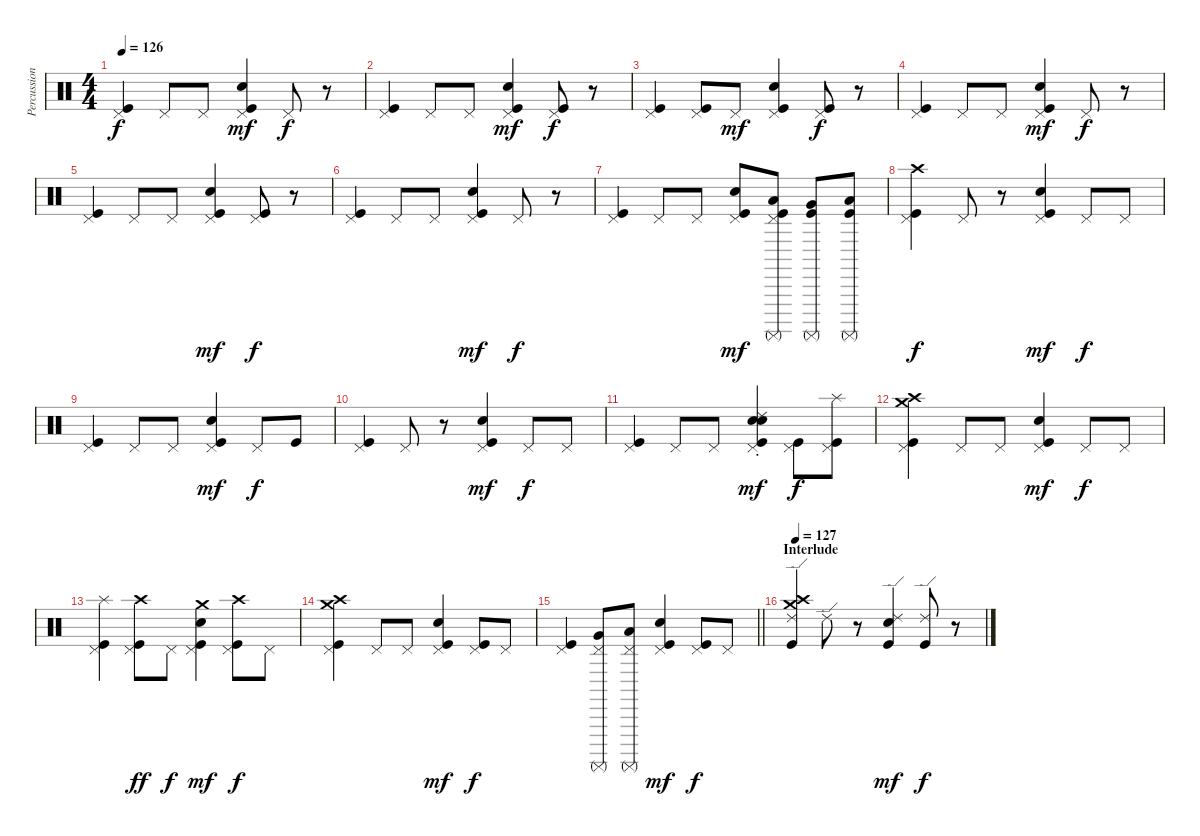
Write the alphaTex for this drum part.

\track ("Percussion" "Percussion") {instrument percussion}
\staff {score}
\articulation defaults
\ts (4 4)
\tempo 126
\clef neutral
\ks c
("Pedal Hi-Hat (hit)" "Kick (hit)").4{dy f} "Pedal Hi-Hat (hit)".8 "Pedal Hi-Hat (hit)".8 ("Pedal Hi-Hat (hit)" "Kick (hit)" "Electric Snare (hit)").4{dy mf} "Pedal Hi-Hat (hit)".8{dy f} r.8 |
("Pedal Hi-Hat (hit)" "Kick (hit)").4 "Pedal Hi-Hat (hit)".8 "Pedal Hi-Hat (hit)".8 ("Pedal Hi-Hat (hit)" "Electric Snare (hit)" "Kick (hit)").4{dy mf} ("Pedal Hi-Hat (hit)" "Kick (hit)").8{dy f} r.8 |
("Pedal Hi-Hat (hit)" "Kick (hit)").4 ("Pedal Hi-Hat (hit)" "Kick (hit)").8 "Pedal Hi-Hat (hit)".8{dy mf} ("Pedal Hi-Hat (hit)" "Kick (hit)" "Electric Snare (hit)").4 ("Pedal Hi-Hat (hit)" "Kick (hit)").8{dy f} r.8 |
("Pedal Hi-Hat (hit)" "Kick (hit)").4 "Pedal Hi-Hat (hit)".8 "Pedal Hi-Hat (hit)".8 ("Pedal Hi-Hat (hit)" "Kick (hit)" "Electric Snare (hit)").4{dy mf} "Pedal Hi-Hat (hit)".8{dy f} r.8 |
("Pedal Hi-Hat (hit)" "Kick (hit)").4 "Pedal Hi-Hat (hit)".8 "Pedal Hi-Hat (hit)".8 ("Pedal Hi-Hat (hit)" "Electric Snare (hit)" "Kick (hit)").4{dy mf} ("Pedal Hi-Hat (hit)" "Kick (hit)").8{dy f} r.8 |
("Pedal Hi-Hat (hit)" "Kick (hit)").4 "Pedal Hi-Hat (hit)".8 "Pedal Hi-Hat (hit)".8 ("Pedal Hi-Hat (hit)" "Kick (hit)" "Electric Snare (hit)").4{dy mf} "Pedal Hi-Hat (hit)".8{dy f} r.8 |
("Pedal Hi-Hat (hit)" "Kick (hit)").4 "Pedal Hi-Hat (hit)".8 "Pedal Hi-Hat (hit)".8 ("Pedal Hi-Hat (hit)" "Electric Snare (hit)" "Kick (hit)").8{dy mf} ("Low Tom (hit)" "Pedal Hi-Hat (hit)" "Kick (hit)" "Surdo (mute)").8 ("Very Low Tom (hit)" "Kick (hit)" "Surdo (mute)").8 ("Low Floor Tom (hit)" "Kick (hit)" "Surdo (mute)").8 |
("Pedal Hi-Hat (hit)" "Kick (hit)" "Crash high (hit)").4{dy f} "Pedal Hi-Hat (hit)".8 r.8 ("Pedal Hi-Hat (hit)" "Kick (hit)" "Electric Snare (hit)").4{dy mf} "Pedal Hi-Hat (hit)".8{dy f} "Pedal Hi-Hat (hit)".8 |
("Pedal Hi-Hat (hit)" "Kick (hit)").4 "Pedal Hi-Hat (hit)".8 "Pedal Hi-Hat (hit)".8 ("Pedal Hi-Hat (hit)" "Electric Snare (hit)" "Kick (hit)").4{dy mf} "Pedal Hi-Hat (hit)".8{dy f} "Kick (hit)".8 |
("Pedal Hi-Hat (hit)" "Kick (hit)").4 "Pedal Hi-Hat (hit)".8 r.8 ("Pedal Hi-Hat (hit)" "Kick (hit)" "Electric Snare (hit)").4{dy mf} "Pedal Hi-Hat (hit)".8{dy f} "Pedal Hi-Hat (hit)".8 |
("Pedal Hi-Hat (hit)" "Kick (hit)").4 "Pedal Hi-Hat (hit)".8 "Pedal Hi-Hat (hit)".8 ("Ride (choke) 2" "Pedal Hi-Hat (hit)" "Kick (hit)" "Electric Snare (hit)" "Hand Clap (hit)").4{dy mf} ("Pedal Hi-Hat (hit)" "Kick (hit)").8{dy f} ("Kick (hit)" "Pedal Hi-Hat (hit)" "Splash (hit)").8 |
("Pedal Hi-Hat (hit)" "Kick (hit)" "Crash medium (hit)" "Crash high (hit)").4 "Pedal Hi-Hat (hit)".8 "Pedal Hi-Hat (hit)".8 ("Pedal Hi-Hat (hit)" "Kick (hit)" "Electric Snare (hit)").4{dy mf} "Pedal Hi-Hat (hit)".8{dy f} "Pedal Hi-Hat (hit)".8 |
("Pedal Hi-Hat (hit)" "Kick (hit)" "Splash (hit)").4 ("Kick (hit)" "Pedal Hi-Hat (hit)" "Crash high (hit)").8{dy ff} "Pedal Hi-Hat (hit)".8{dy f} ("Pedal Hi-Hat (hit)" "Crash medium (hit)" "Electric Snare (hit)" "Kick (hit)").4{dy mf} ("Kick (hit)" "Pedal Hi-Hat (hit)" "Crash high (hit)").8{dy f} "Pedal Hi-Hat (hit)".8 |
("Pedal Hi-Hat (hit)" "Kick (hit)" "Crash medium (hit)" "Crash high (hit)").4 "Pedal Hi-Hat (hit)".8 "Pedal Hi-Hat (hit)".8 ("Pedal Hi-Hat (hit)" "Kick (hit)" "Electric Snare (hit)").4{dy mf} ("Pedal Hi-Hat (hit)" "Kick (hit)").8{dy f} "Pedal Hi-Hat (hit)".8 |
\barLineRight lightlight
("Pedal Hi-Hat (hit)" "Kick (hit)").4 ("Pedal Hi-Hat (hit)" "Very Low Tom (hit)" "Surdo (mute)").8 ("Pedal Hi-Hat (hit)" "Low Floor Tom (hit)" "Surdo (mute)").8 ("Pedal Hi-Hat (hit)" "Kick (hit)" "Electric Snare (hit)").4{dy mf} ("Pedal Hi-Hat (hit)" "Kick (hit)").8{dy f} "Pedal Hi-Hat (hit)".8 |
\section ("" "Interlude")
\tempo 127
("Ride (edge) 2" "Kick (hit)" "Crash medium (hit)" "Crash high (hit)").4 "Ride (edge) 2".8 r.8 ("Ride (edge) 2" "Kick (hit)" "Electric Snare (hit)").4{dy mf} ("Ride (edge) 2" "Kick (hit)").8{dy f} r.8
